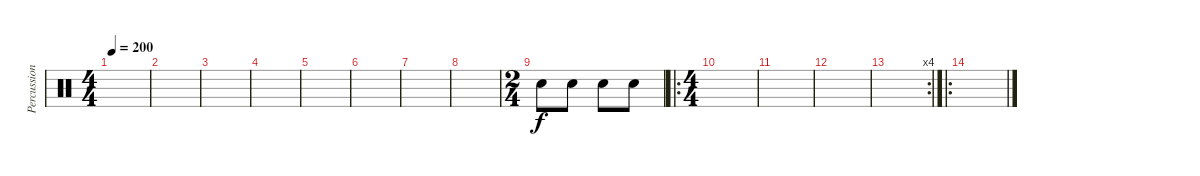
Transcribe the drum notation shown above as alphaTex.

\track ("Percussions" "Percussion") {instrument percussion}
\staff {score}
\articulation defaults
\ts (4 4)
\tempo 200
\clef neutral
\ks c
|
|
|
|
|
|
|
|
\ts (2 4)
"Electric Snare (hit)".8 "Electric Snare (hit)".8 "Electric Snare (hit)".8 "Electric Snare (hit)".8 |
\ro
\ts (4 4)
|
|
|
\rc 4
|
\ro
